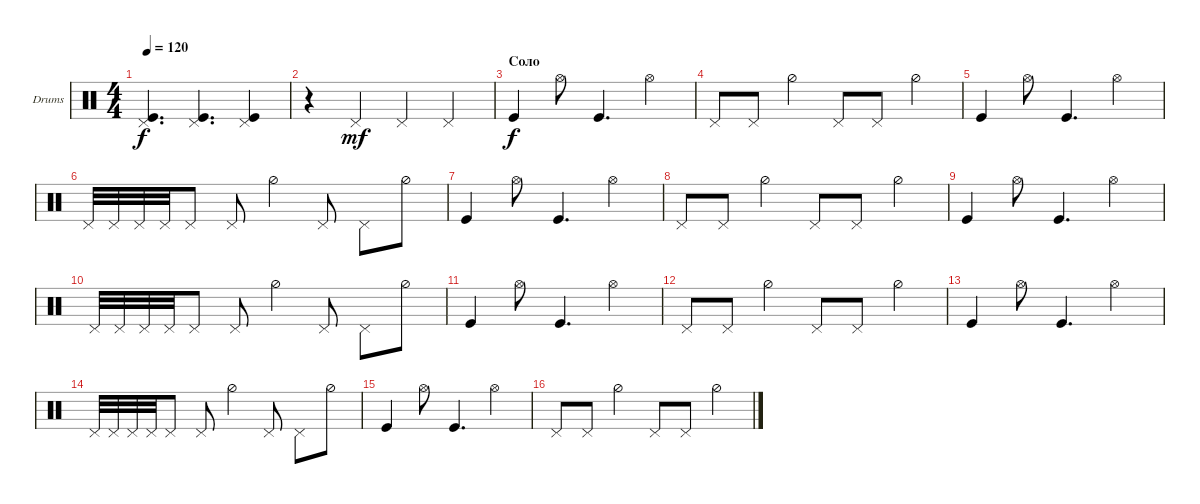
\defaultSystemsLayout 4
\bracketExtendMode groupsimilarinstruments
\firstSystemTrackNameOrientation horizontal
\otherSystemsTrackNameOrientation horizontal
\track ("Е. Кулаков" "Drums") {instrument percussion}
\staff {score}
\articulation defaults
\ts (4 4)
\tempo 120
\clef neutral
\ks c
("Kick (hit)" "Pedal Hi-Hat (hit)").4{d dy f} ("Kick (hit)" "Pedal Hi-Hat (hit)").4{d} ("Kick (hit)" "Pedal Hi-Hat (hit)").4 |
r.4 "Pedal Hi-Hat (hit)".4{dy mf} "Pedal Hi-Hat (hit)".4 "Pedal Hi-Hat (hit)".4 |
\section ("" "Соло")
"Kick (hit)".4{dy f} "Hi-Hat (open)".8 "Kick (hit)".4{d} "Hi-Hat (open)".4 |
"Pedal Hi-Hat (hit)".8 "Pedal Hi-Hat (hit)".8 "Hi-Hat (half)".4 "Pedal Hi-Hat (hit)".8 "Pedal Hi-Hat (hit)".8 "Hi-Hat (half)".4 |
"Kick (hit)".4 "Hi-Hat (open)".8 "Kick (hit)".4{d} "Hi-Hat (open)".4 |
"Pedal Hi-Hat (hit)".32 "Pedal Hi-Hat (hit)".32 "Pedal Hi-Hat (hit)".32 "Pedal Hi-Hat (hit)".32 "Pedal Hi-Hat (hit)".8 "Pedal Hi-Hat (hit)".8 "Hi-Hat (half)".4 "Pedal Hi-Hat (hit)".8 "Pedal Hi-Hat (hit)".8 "Hi-Hat (half)".8 |
"Kick (hit)".4 "Hi-Hat (open)".8 "Kick (hit)".4{d} "Hi-Hat (open)".4 |
"Pedal Hi-Hat (hit)".8 "Pedal Hi-Hat (hit)".8 "Hi-Hat (half)".4 "Pedal Hi-Hat (hit)".8 "Pedal Hi-Hat (hit)".8 "Hi-Hat (half)".4 |
"Kick (hit)".4 "Hi-Hat (open)".8 "Kick (hit)".4{d} "Hi-Hat (open)".4 |
"Pedal Hi-Hat (hit)".32 "Pedal Hi-Hat (hit)".32 "Pedal Hi-Hat (hit)".32 "Pedal Hi-Hat (hit)".32 "Pedal Hi-Hat (hit)".8 "Pedal Hi-Hat (hit)".8 "Hi-Hat (half)".4 "Pedal Hi-Hat (hit)".8 "Pedal Hi-Hat (hit)".8 "Hi-Hat (half)".8 |
"Kick (hit)".4 "Hi-Hat (open)".8 "Kick (hit)".4{d} "Hi-Hat (open)".4 |
"Pedal Hi-Hat (hit)".8 "Pedal Hi-Hat (hit)".8 "Hi-Hat (half)".4 "Pedal Hi-Hat (hit)".8 "Pedal Hi-Hat (hit)".8 "Hi-Hat (half)".4 |
"Kick (hit)".4 "Hi-Hat (open)".8 "Kick (hit)".4{d} "Hi-Hat (open)".4 |
"Pedal Hi-Hat (hit)".32 "Pedal Hi-Hat (hit)".32 "Pedal Hi-Hat (hit)".32 "Pedal Hi-Hat (hit)".32 "Pedal Hi-Hat (hit)".8 "Pedal Hi-Hat (hit)".8 "Hi-Hat (half)".4 "Pedal Hi-Hat (hit)".8 "Pedal Hi-Hat (hit)".8 "Hi-Hat (half)".8 |
"Kick (hit)".4 "Hi-Hat (open)".8 "Kick (hit)".4{d} "Hi-Hat (open)".4 |
"Pedal Hi-Hat (hit)".8 "Pedal Hi-Hat (hit)".8 "Hi-Hat (half)".4 "Pedal Hi-Hat (hit)".8 "Pedal Hi-Hat (hit)".8 "Hi-Hat (half)".4
